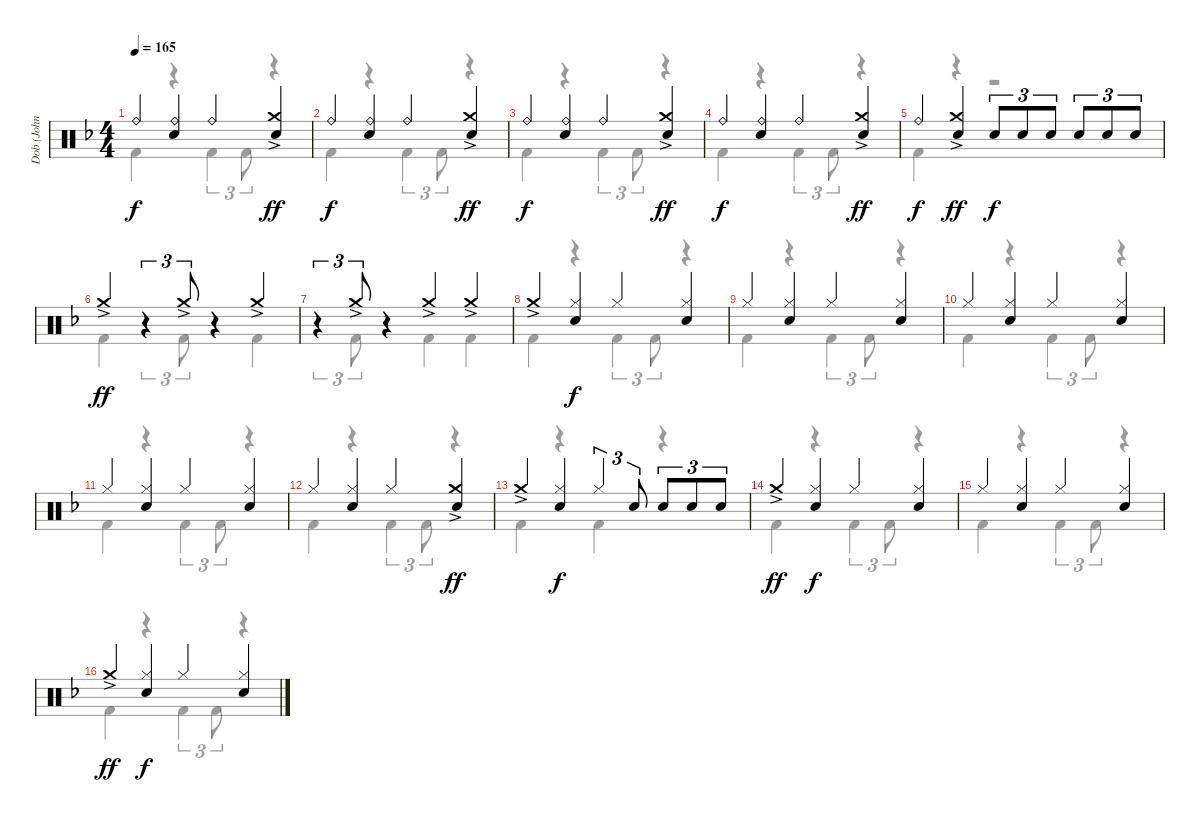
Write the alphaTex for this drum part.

\track ("Dob (John O’Reilly)" "Dob (John ") {instrument percussion}
\staff {score}
\articulation defaults
\voice
\ts (4 4)
\tempo 165
\clef neutral
\ks f "Ride (bell)".4{dy f}
("Ride (bell)" "Electric Snare (hit)").4 "Ride (bell)".4 ("Crash medium (hit)"{ac} "Electric Snare (hit)").4{dy ff} |
"Ride (bell)".4{dy f} ("Ride (bell)" "Electric Snare (hit)").4 "Ride (bell)".4 ("Crash medium (hit)"{ac} "Electric Snare (hit)").4{dy ff} |
"Ride (bell)".4{dy f} ("Ride (bell)" "Electric Snare (hit)").4 "Ride (bell)".4 ("Crash medium (hit)"{ac} "Electric Snare (hit)").4{dy ff} |
"Ride (bell)".4{dy f} ("Ride (bell)" "Electric Snare (hit)").4 "Ride (bell)".4 ("Crash medium (hit)"{ac} "Electric Snare (hit)").4{dy ff} |
"Ride (bell)".4{dy f} ("Crash medium (hit)"{ac} "Electric Snare (hit)").4{dy ff} "Electric Snare (hit)".8{tu (3 2) dy f} "Electric Snare (hit)".8{tu (3 2)} "Electric Snare (hit)".8{tu (3 2)} "Electric Snare (hit)".8{tu (3 2)} "Electric Snare (hit)".8{tu (3 2)} "Electric Snare (hit)".8{tu (3 2)} |
"Crash medium (hit)"{ac}.4{dy ff} r.4{tu (3 2)} "Crash medium (hit)"{ac}.8{tu (3 2)} r.4 "Crash medium (hit)"{ac}.4 |
r.4{tu (3 2)} "Crash medium (hit)"{ac}.8{tu (3 2)} r.4 "Crash medium (hit)"{ac}.4 "Crash medium (hit)"{ac}.4 |
"Crash medium (hit)"{ac}.4 ("Hi-Hat (closed)" "Electric Snare (hit)").4{dy f} "Hi-Hat (closed)".4 ("Hi-Hat (closed)" "Electric Snare (hit)").4 |
"Hi-Hat (closed)".4 ("Hi-Hat (closed)" "Electric Snare (hit)").4 "Hi-Hat (closed)".4 ("Hi-Hat (closed)" "Electric Snare (hit)").4 |
"Hi-Hat (closed)".4 ("Hi-Hat (closed)" "Electric Snare (hit)").4 "Hi-Hat (closed)".4 ("Hi-Hat (closed)" "Electric Snare (hit)").4 |
"Hi-Hat (closed)".4 ("Hi-Hat (closed)" "Electric Snare (hit)").4 "Hi-Hat (closed)".4 ("Hi-Hat (closed)" "Electric Snare (hit)").4 |
"Hi-Hat (closed)".4 ("Hi-Hat (closed)" "Electric Snare (hit)").4 "Hi-Hat (closed)".4 ("Crash medium (hit)"{ac} "Electric Snare (hit)").4{dy ff} |
"Crash medium (hit)"{ac}.4 ("Hi-Hat (closed)" "Electric Snare (hit)").4{dy f} "Hi-Hat (closed)".4{tu (3 2)} "Electric Snare (hit)".8{tu (3 2)} "Electric Snare (hit)".8{tu (3 2)} "Electric Snare (hit)".8{tu (3 2)} "Electric Snare (hit)".8{tu (3 2)} |
"Crash medium (hit)"{ac}.4{dy ff} ("Hi-Hat (closed)" "Electric Snare (hit)").4{dy f} "Hi-Hat (closed)".4 ("Hi-Hat (closed)" "Electric Snare (hit)").4 |
"Hi-Hat (closed)".4 ("Hi-Hat (closed)" "Electric Snare (hit)").4 "Hi-Hat (closed)".4 ("Hi-Hat (closed)" "Electric Snare (hit)").4 |
"Crash medium (hit)"{ac}.4{dy ff} ("Hi-Hat (closed)" "Electric Snare (hit)").4{dy f} "Hi-Hat (closed)".4 ("Hi-Hat (closed)" "Electric Snare (hit)").4
\voice
\clef neutral
\ottava regular
\simile none
\ks f "Kick (hit) 2".4{dy f}
r.4 "Kick (hit) 2".4{tu (3 2)} "Kick (hit) 2".8{tu (3 2)} r.4 |
"Kick (hit) 2".4 r.4 "Kick (hit) 2".4{tu (3 2)} "Kick (hit) 2".8{tu (3 2)} r.4 |
"Kick (hit) 2".4 r.4 "Kick (hit) 2".4{tu (3 2)} "Kick (hit) 2".8{tu (3 2)} r.4 |
"Kick (hit) 2".4 r.4 "Kick (hit) 2".4{tu (3 2)} "Kick (hit) 2".8{tu (3 2)} r.4 |
"Kick (hit) 2".4 r.4 r.2 |
"Kick (hit) 2".4 r.4{tu (3 2)} "Kick (hit) 2".8{tu (3 2)} r.4 "Kick (hit) 2".4 |
r.4{tu (3 2)} "Kick (hit) 2".8{tu (3 2)} r.4 "Kick (hit) 2".4 "Kick (hit) 2".4 |
"Kick (hit) 2".4 r.4 "Kick (hit) 2".4{tu (3 2)} "Kick (hit) 2".8{tu (3 2)} r.4 |
"Kick (hit) 2".4 r.4 "Kick (hit) 2".4{tu (3 2)} "Kick (hit) 2".8{tu (3 2)} r.4 |
"Kick (hit) 2".4 r.4 "Kick (hit) 2".4{tu (3 2)} "Kick (hit) 2".8{tu (3 2)} r.4 |
"Kick (hit) 2".4 r.4 "Kick (hit) 2".4{tu (3 2)} "Kick (hit) 2".8{tu (3 2)} r.4 |
"Kick (hit) 2".4 r.4 "Kick (hit) 2".4{tu (3 2)} "Kick (hit) 2".8{tu (3 2)} r.4 |
"Kick (hit) 2".4 r.4 "Kick (hit) 2".4 r.4 |
"Kick (hit) 2".4 r.4 "Kick (hit) 2".4{tu (3 2)} "Kick (hit) 2".8{tu (3 2)} r.4 |
"Kick (hit) 2".4 r.4 "Kick (hit) 2".4{tu (3 2)} "Kick (hit) 2".8{tu (3 2)} r.4 |
"Kick (hit) 2".4 r.4 "Kick (hit) 2".4{tu (3 2)} "Kick (hit) 2".8{tu (3 2)} r.4
